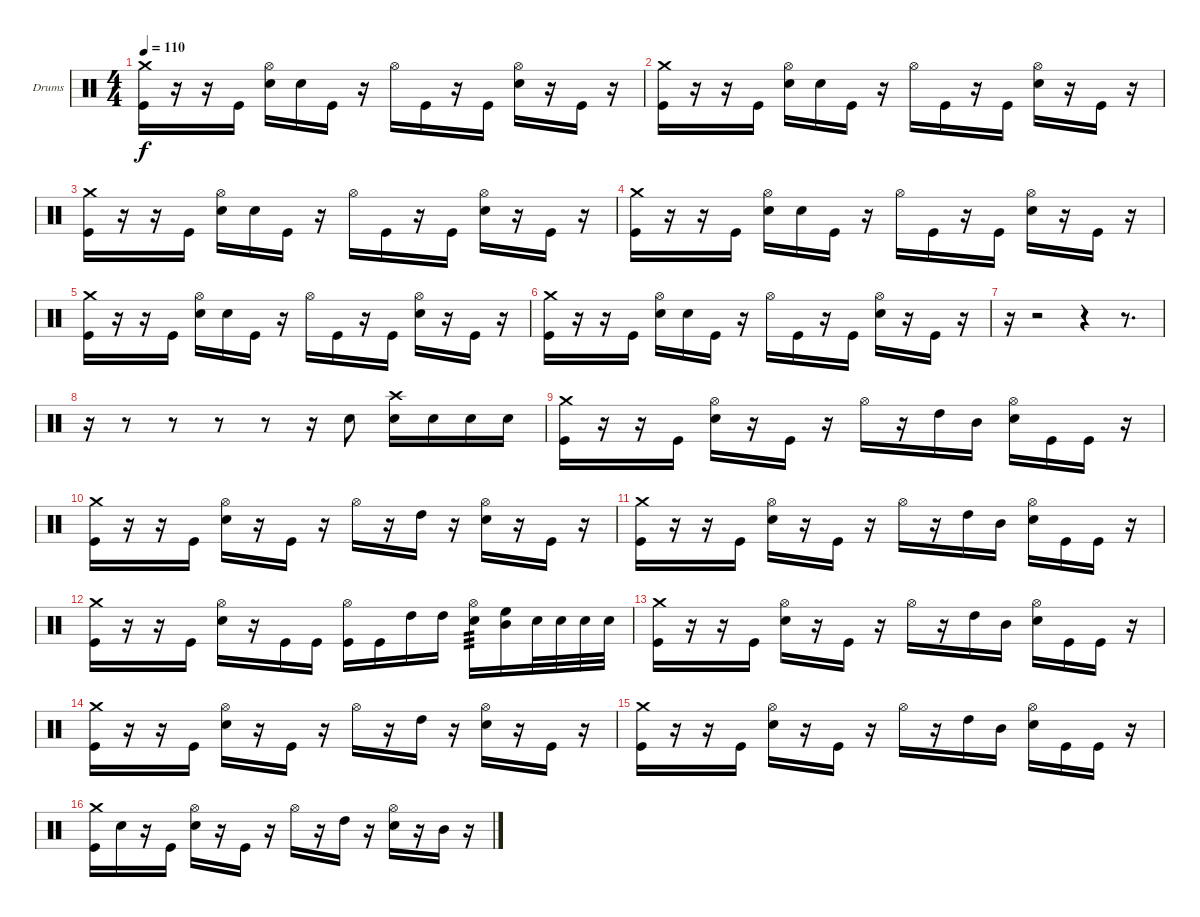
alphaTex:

\bracketExtendMode groupsimilarinstruments
\firstSystemTrackNameOrientation horizontal
\otherSystemsTrackNameOrientation horizontal
\track ("Drumkit" "Drums") {instrument percussion}
\staff {score}
\articulation defaults
\ts (4 4)
\tempo 110
\clef neutral
\ks c
("Crash medium (hit)" "Kick (hit)").16{dy f} r.16 r.16 "Kick (hit)".16 ("Hi-Hat (open)" "Snare (hit) 2").16 "Snare (hit) 2".16 "Kick (hit)".16 r.16 "Hi-Hat (open)".16 "Kick (hit)".16 r.16 "Kick (hit)".16 ("Hi-Hat (open)" "Snare (hit) 2").16 r.16 "Kick (hit)".16 r.16 |
("Crash medium (hit)" "Kick (hit)").16 r.16 r.16 "Kick (hit)".16 ("Hi-Hat (open)" "Snare (hit) 2").16 "Snare (hit) 2".16 "Kick (hit)".16 r.16 "Hi-Hat (open)".16 "Kick (hit)".16 r.16 "Kick (hit)".16 ("Hi-Hat (open)" "Snare (hit) 2").16 r.16 "Kick (hit)".16 r.16 |
("Crash medium (hit)" "Kick (hit)").16 r.16 r.16 "Kick (hit)".16 ("Hi-Hat (open)" "Snare (hit) 2").16 "Snare (hit) 2".16 "Kick (hit)".16 r.16 "Hi-Hat (open)".16 "Kick (hit)".16 r.16 "Kick (hit)".16 ("Hi-Hat (open)" "Snare (hit) 2").16 r.16 "Kick (hit)".16 r.16 |
("Crash medium (hit)" "Kick (hit)").16 r.16 r.16 "Kick (hit)".16 ("Hi-Hat (open)" "Snare (hit) 2").16 "Snare (hit) 2".16 "Kick (hit)".16 r.16 "Hi-Hat (open)".16 "Kick (hit)".16 r.16 "Kick (hit)".16 ("Hi-Hat (open)" "Snare (hit) 2").16 r.16 "Kick (hit)".16 r.16 |
("Crash medium (hit)" "Kick (hit)").16 r.16 r.16 "Kick (hit)".16 ("Hi-Hat (open)" "Snare (hit) 2").16 "Snare (hit) 2".16 "Kick (hit)".16 r.16 "Hi-Hat (open)".16 "Kick (hit)".16 r.16 "Kick (hit)".16 ("Hi-Hat (open)" "Snare (hit) 2").16 r.16 "Kick (hit)".16 r.16 |
("Crash medium (hit)" "Kick (hit)").16 r.16 r.16 "Kick (hit)".16 ("Hi-Hat (open)" "Snare (hit) 2").16 "Snare (hit) 2".16 "Kick (hit)".16 r.16 "Hi-Hat (open)".16 "Kick (hit)".16 r.16 "Kick (hit)".16 ("Hi-Hat (open)" "Snare (hit) 2").16 r.16 "Kick (hit)".16 r.16 |
r.16 r.2 r.4 r.8{d} |
r.16 r.8 r.8 r.8 r.8 r.16 "Snare (hit) 2".8 ("Crash high (hit)" "Snare (hit) 2").16 "Snare (hit) 2".16 "Snare (hit) 2".16 "Snare (hit) 2".16 |
("Crash medium (hit)" "Kick (hit)").16 r.16 r.16 "Kick (hit)".16 ("Hi-Hat (open)" "Snare (hit) 2").16 r.16 "Kick (hit)".16 r.16 "Hi-Hat (open)".16 r.16 "High Tom (hit)".16 "Mid Tom (hit)".16 ("Hi-Hat (open)" "Snare (hit) 2").16 "Kick (hit)".16 "Kick (hit)".16 r.16 |
("Crash medium (hit)" "Kick (hit)").16 r.16 r.16 "Kick (hit)".16 ("Hi-Hat (open)" "Snare (hit) 2").16 r.16 "Kick (hit)".16 r.16 "Hi-Hat (open)".16 r.16 "High Tom (hit)".16 r.16 ("Hi-Hat (open)" "Snare (hit) 2").16 r.16 "Kick (hit)".16 r.16 |
("Crash medium (hit)" "Kick (hit)").16 r.16 r.16 "Kick (hit)".16 ("Hi-Hat (open)" "Snare (hit) 2").16 r.16 "Kick (hit)".16 r.16 "Hi-Hat (open)".16 r.16 "High Tom (hit)".16 "Mid Tom (hit)".16 ("Hi-Hat (open)" "Snare (hit) 2").16 "Kick (hit)".16 "Kick (hit)".16 r.16 |
("Crash medium (hit)" "Kick (hit)").16 r.16 r.16 "Kick (hit)".16 ("Hi-Hat (open)" "Snare (hit) 2").16 r.16 "Kick (hit)".16 "Kick (hit)".16 ("Hi-Hat (open)" "Kick (hit)").16 "Kick (hit)".16 "High Tom (hit)".16 "High Tom (hit)".16 ("Hi-Hat (open)" "Snare (hit) 2").16{tp 3} ("High Floor Tom (hit)" "Mid Tom (hit)").16 "Snare (hit) 2".32 "Snare (hit) 2".32 "Snare (hit) 2".32 "Snare (hit) 2".32 |
("Crash medium (hit)" "Kick (hit)").16 r.16 r.16 "Kick (hit)".16 ("Hi-Hat (open)" "Snare (hit) 2").16 r.16 "Kick (hit)".16 r.16 "Hi-Hat (open)".16 r.16 "High Tom (hit)".16 "Mid Tom (hit)".16 ("Hi-Hat (open)" "Snare (hit) 2").16 "Kick (hit)".16 "Kick (hit)".16 r.16 |
("Crash medium (hit)" "Kick (hit)").16 r.16 r.16 "Kick (hit)".16 ("Hi-Hat (open)" "Snare (hit) 2").16 r.16 "Kick (hit)".16 r.16 "Hi-Hat (open)".16 r.16 "High Tom (hit)".16 r.16 ("Hi-Hat (open)" "Snare (hit) 2").16 r.16 "Kick (hit)".16 r.16 |
("Crash medium (hit)" "Kick (hit)").16 r.16 r.16 "Kick (hit)".16 ("Hi-Hat (open)" "Snare (hit) 2").16 r.16 "Kick (hit)".16 r.16 "Hi-Hat (open)".16 r.16 "High Tom (hit)".16 "Mid Tom (hit)".16 ("Hi-Hat (open)" "Snare (hit) 2").16 "Kick (hit)".16 "Kick (hit)".16 r.16 |
("Crash medium (hit)" "Kick (hit)").16 "Snare (hit) 2".16 r.16 "Kick (hit)".16 ("Hi-Hat (open)" "Snare (hit) 2").16 r.16 "Kick (hit)".16 r.16 "Hi-Hat (open)".16 r.16 "High Tom (hit)".16 r.16 ("Hi-Hat (open)" "Snare (hit) 2").16 r.16 "Mid Tom (hit)".16 r.16
